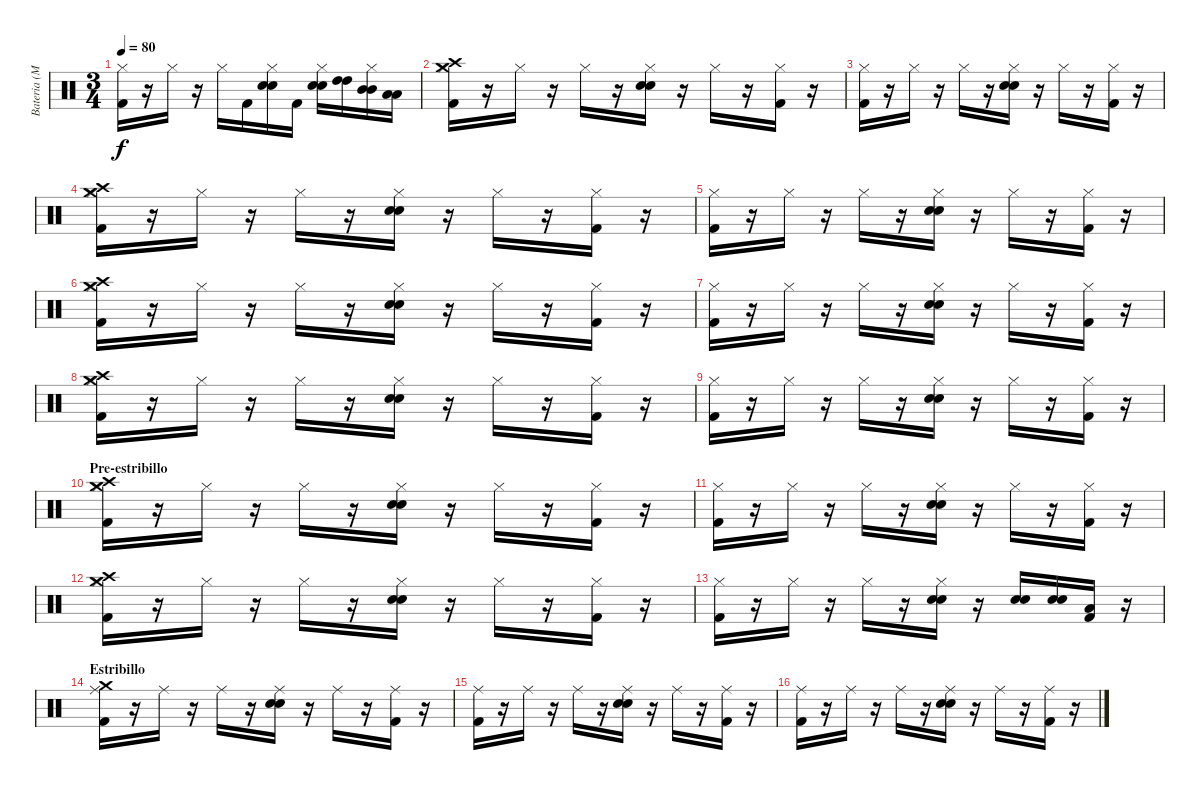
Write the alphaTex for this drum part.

\track ("Bateria (Matt)" "Bateria (M") {instrument percussion}
\staff {score}
\articulation defaults
\ts (3 4)
\tempo 80
\clef neutral
\ks c
("Hi-Hat (closed)" "Kick (hit) 2").16{dy f} r.16 "Hi-Hat (closed)".16 r.16 "Hi-Hat (closed)".16 "Kick (hit) 2".16 ("Hi-Hat (closed)" "Electric Snare (hit)" "Snare (hit) 2").16 "Kick (hit) 2".16 ("Hi-Hat (closed)" "Electric Snare (hit)" "Snare (hit) 2").16 ("High Tom (hit)" "High Tom (hit)").16 ("Hi-Hat (closed)" "Mid Tom (hit)" "Mid Tom (hit)").16 ("Low Tom (hit)" "Low Tom (hit)").16 |
("Hi-Hat (closed)" "Crash medium (hit)" "Crash high (hit)" "Kick (hit) 2").16 r.16 "Hi-Hat (closed)".16 r.16 "Hi-Hat (closed)".16 r.16 ("Hi-Hat (closed)" "Snare (hit) 2" "Electric Snare (hit)").16 r.16 "Hi-Hat (closed)".16 r.16 ("Hi-Hat (closed)" "Kick (hit) 2").16 r.16 |
("Hi-Hat (closed)" "Kick (hit) 2").16 r.16 "Hi-Hat (closed)".16 r.16 "Hi-Hat (closed)".16 r.16 ("Hi-Hat (closed)" "Snare (hit) 2" "Electric Snare (hit)").16 r.16 "Hi-Hat (closed)".16 r.16 ("Hi-Hat (closed)" "Kick (hit) 2").16 r.16 |
("Hi-Hat (closed)" "Crash medium (hit)" "Crash high (hit)" "Kick (hit) 2").16 r.16 "Hi-Hat (closed)".16 r.16 "Hi-Hat (closed)".16 r.16 ("Hi-Hat (closed)" "Snare (hit) 2" "Electric Snare (hit)").16 r.16 "Hi-Hat (closed)".16 r.16 ("Hi-Hat (closed)" "Kick (hit) 2").16 r.16 |
("Hi-Hat (closed)" "Kick (hit) 2").16 r.16 "Hi-Hat (closed)".16 r.16 "Hi-Hat (closed)".16 r.16 ("Hi-Hat (closed)" "Snare (hit) 2" "Electric Snare (hit)").16 r.16 "Hi-Hat (closed)".16 r.16 ("Hi-Hat (closed)" "Kick (hit) 2").16 r.16 |
("Hi-Hat (closed)" "Crash medium (hit)" "Crash high (hit)" "Kick (hit) 2").16 r.16 "Hi-Hat (closed)".16 r.16 "Hi-Hat (closed)".16 r.16 ("Hi-Hat (closed)" "Snare (hit) 2" "Electric Snare (hit)").16 r.16 "Hi-Hat (closed)".16 r.16 ("Hi-Hat (closed)" "Kick (hit) 2").16 r.16 |
("Hi-Hat (closed)" "Kick (hit) 2").16 r.16 "Hi-Hat (closed)".16 r.16 "Hi-Hat (closed)".16 r.16 ("Hi-Hat (closed)" "Snare (hit) 2" "Electric Snare (hit)").16 r.16 "Hi-Hat (closed)".16 r.16 ("Hi-Hat (closed)" "Kick (hit) 2").16 r.16 |
("Hi-Hat (closed)" "Crash medium (hit)" "Crash high (hit)" "Kick (hit) 2").16 r.16 "Hi-Hat (closed)".16 r.16 "Hi-Hat (closed)".16 r.16 ("Hi-Hat (closed)" "Snare (hit) 2" "Electric Snare (hit)").16 r.16 "Hi-Hat (closed)".16 r.16 ("Hi-Hat (closed)" "Kick (hit) 2").16 r.16 |
("Hi-Hat (closed)" "Kick (hit) 2").16 r.16 "Hi-Hat (closed)".16 r.16 "Hi-Hat (closed)".16 r.16 ("Hi-Hat (closed)" "Snare (hit) 2" "Electric Snare (hit)").16 r.16 "Hi-Hat (closed)".16 r.16 ("Hi-Hat (closed)" "Kick (hit) 2").16 r.16 |
\section ("" "Pre-estribillo")
("Hi-Hat (closed)" "Crash medium (hit)" "Crash high (hit)" "Kick (hit) 2").16 r.16 "Hi-Hat (closed)".16 r.16 "Hi-Hat (closed)".16 r.16 ("Hi-Hat (closed)" "Snare (hit) 2" "Electric Snare (hit)").16 r.16 "Hi-Hat (closed)".16 r.16 ("Hi-Hat (closed)" "Kick (hit) 2").16 r.16 |
("Hi-Hat (closed)" "Kick (hit) 2").16 r.16 "Hi-Hat (closed)".16 r.16 "Hi-Hat (closed)".16 r.16 ("Hi-Hat (closed)" "Snare (hit) 2" "Electric Snare (hit)").16 r.16 "Hi-Hat (closed)".16 r.16 ("Hi-Hat (closed)" "Kick (hit) 2").16 r.16 |
("Hi-Hat (closed)" "Crash medium (hit)" "Crash high (hit)" "Kick (hit) 2").16 r.16 "Hi-Hat (closed)".16 r.16 "Hi-Hat (closed)".16 r.16 ("Hi-Hat (closed)" "Snare (hit) 2" "Electric Snare (hit)").16 r.16 "Hi-Hat (closed)".16 r.16 ("Hi-Hat (closed)" "Kick (hit) 2").16 r.16 |
("Hi-Hat (closed)" "Kick (hit) 2").16 r.16 "Hi-Hat (closed)".16 r.16 "Hi-Hat (closed)".16 r.16 ("Hi-Hat (closed)" "Snare (hit) 2" "Electric Snare (hit)").16 r.16 ("Snare (hit) 2" "Electric Snare (hit)").16 ("Snare (hit) 2" "Snare (hit) 2").16 ("Low Tom (hit)" "Kick (hit) 2").16 r.16 |
\section ("" "Estribillo")
("Ride (middle)" "Crash medium (hit)" "Kick (hit) 2").16 r.16 "Ride (middle)".16 r.16 "Ride (middle)".16 r.16 ("Ride (middle)" "Electric Snare (hit)" "Snare (hit) 2").16 r.16 "Ride (middle)".16 r.16 ("Ride (middle)" "Kick (hit) 2").16 r.16 |
("Ride (middle)" "Kick (hit) 2").16 r.16 "Ride (middle)".16 r.16 "Ride (middle)".16 r.16 ("Ride (middle)" "Electric Snare (hit)" "Snare (hit) 2").16 r.16 "Ride (middle)".16 r.16 ("Ride (middle)" "Kick (hit) 2").16 r.16 |
("Ride (middle)" "Kick (hit) 2").16 r.16 "Ride (middle)".16 r.16 "Ride (middle)".16 r.16 ("Ride (middle)" "Electric Snare (hit)" "Snare (hit) 2").16 r.16 "Ride (middle)".16 r.16 ("Ride (middle)" "Kick (hit) 2").16 r.16
